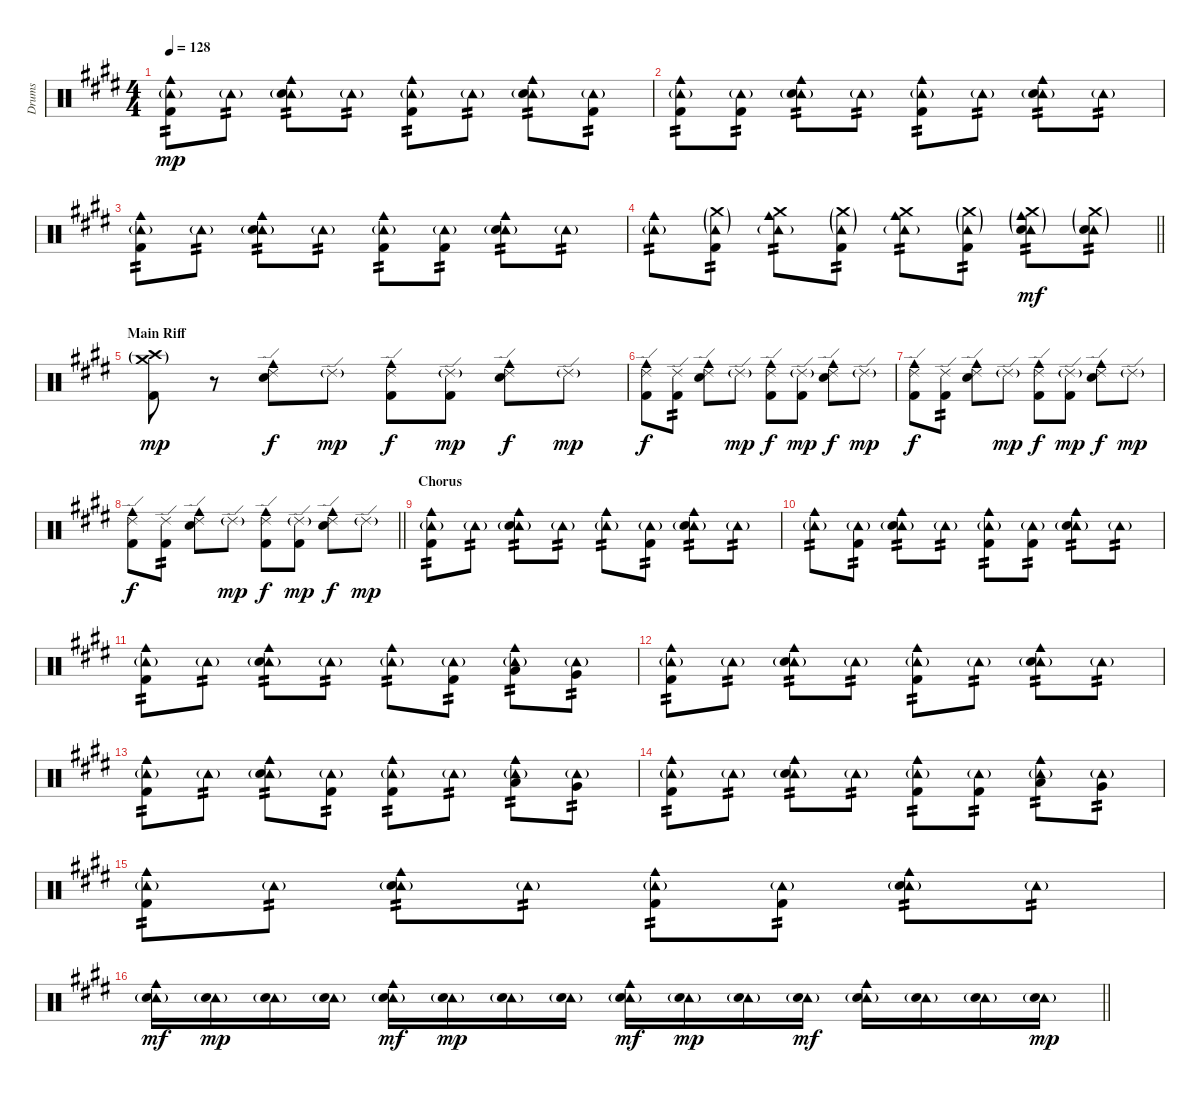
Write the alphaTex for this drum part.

\track ("Drums" "Drums") {instrument percussion}
\staff {score}
\articulation defaults
\ts (4 4)
\tempo 128
\clef neutral
\ks e
("Cowbell medium (hit)" "Tambourine (hit)"{g} "Kick (hit) 2").8{tp 2 dy mp} "Tambourine (hit)"{g}.8{tp 2} ("Cowbell medium (hit)" "Tambourine (hit)"{g} "Snare (hit) 2").8{tp 2} "Tambourine (hit)"{g}.8{tp 2} ("Cowbell medium (hit)" "Tambourine (hit)"{g} "Kick (hit) 2").8{tp 2} "Tambourine (hit)"{g}.8{tp 2} ("Cowbell medium (hit)" "Tambourine (hit)"{g} "Snare (hit) 2").8{tp 2} ("Tambourine (hit)"{g} "Kick (hit) 2").8{tp 2} |
\ks c#minor
("Cowbell medium (hit)" "Tambourine (hit)"{g} "Kick (hit) 2").8{tp 2} ("Tambourine (hit)"{g} "Kick (hit) 2").8{tp 2} ("Cowbell medium (hit)" "Tambourine (hit)"{g} "Snare (hit) 2").8{tp 2} "Tambourine (hit)"{g}.8{tp 2} ("Cowbell medium (hit)" "Tambourine (hit)"{g} "Kick (hit) 2").8{tp 2} "Tambourine (hit)"{g}.8{tp 2} ("Cowbell medium (hit)" "Tambourine (hit)"{g} "Snare (hit) 2").8{tp 2} "Tambourine (hit)"{g}.8{tp 2} |
("Cowbell medium (hit)" "Tambourine (hit)"{g} "Kick (hit) 2").8{tp 2} "Tambourine (hit)"{g}.8{tp 2} ("Cowbell medium (hit)" "Tambourine (hit)"{g} "Snare (hit) 2").8{tp 2} "Tambourine (hit)"{g}.8{tp 2} ("Cowbell medium (hit)" "Tambourine (hit)"{g} "Kick (hit) 2").8{tp 2} ("Tambourine (hit)"{g} "Kick (hit) 2").8{tp 2} ("Cowbell medium (hit)" "Tambourine (hit)"{g} "Snare (hit) 2").8{tp 2} "Tambourine (hit)"{g}.8{tp 2} |
\barLineRight lightlight
("Cowbell medium (hit)" "Tambourine (hit)"{g}).8{tp 2} ("Crash medium (hit)"{g} "Tambourine (hit)"{g} "Kick (hit) 2").8{tp 2} ("Cowbell medium (hit)" "Crash medium (hit)" "Tambourine (hit)"{g}).8{tp 2} ("Crash medium (hit)"{g} "Tambourine (hit)"{g} "Kick (hit) 2").8{tp 2} ("Cowbell medium (hit)" "Crash medium (hit)" "Tambourine (hit)"{g}).8{tp 2} ("Crash medium (hit)"{g} "Tambourine (hit)"{g} "Kick (hit) 2").8{tp 2} ("Cowbell medium (hit)"{g} "Crash medium (hit)"{g} "Tambourine (hit)"{g} "Snare (hit) 2").8{tp 2 dy mf} ("Crash medium (hit)"{g} "Tambourine (hit)"{g} "Snare (hit) 2").8{tp 2} |
\section ("" "Main Riff")
("Crash medium (hit)"{g} "Crash high (hit)"{g} "Kick (hit) 2").8{dy mp} r.8 ("Cowbell medium (hit)" "Ride (edge) 2" "Snare (hit) 2").8{dy f} "Ride (edge) 2"{g}.8{dy mp} ("Cowbell medium (hit)" "Ride (edge) 2" "Kick (hit) 2").8{dy f} ("Ride (edge) 2"{g} "Kick (hit) 2").8{dy mp} ("Cowbell medium (hit)" "Ride (edge) 2" "Snare (hit) 2").8{dy f} "Ride (edge) 2"{g}.8{dy mp} |
("Cowbell medium (hit)" "Ride (edge) 2" "Kick (hit) 2").8{dy f} ("Ride (edge) 2" "Kick (hit) 2").8{tp 2} ("Cowbell medium (hit)" "Ride (edge) 2" "Snare (hit) 2").8 "Ride (edge) 2"{g}.8{dy mp} ("Cowbell medium (hit)" "Ride (edge) 2" "Kick (hit) 2").8{dy f} ("Ride (edge) 2"{g} "Kick (hit) 2").8{dy mp} ("Cowbell medium (hit)" "Ride (edge) 2" "Snare (hit) 2").8{dy f} "Ride (edge) 2"{g}.8{dy mp} |
("Cowbell medium (hit)" "Ride (edge) 2" "Kick (hit) 2").8{dy f} ("Ride (edge) 2" "Kick (hit) 2").8{tp 2} ("Cowbell medium (hit)" "Ride (edge) 2" "Snare (hit) 2").8 "Ride (edge) 2"{g}.8{dy mp} ("Cowbell medium (hit)" "Ride (edge) 2" "Kick (hit) 2").8{dy f} ("Ride (edge) 2"{g} "Kick (hit) 2").8{dy mp} ("Cowbell medium (hit)" "Ride (edge) 2" "Snare (hit) 2").8{dy f} "Ride (edge) 2"{g}.8{dy mp} |
\barLineRight lightlight
("Cowbell medium (hit)" "Ride (edge) 2" "Kick (hit) 2").8{dy f} ("Ride (edge) 2" "Kick (hit) 2").8{tp 2} ("Cowbell medium (hit)" "Ride (edge) 2" "Snare (hit) 2").8 "Ride (edge) 2"{g}.8{dy mp} ("Cowbell medium (hit)" "Ride (edge) 2" "Kick (hit) 2").8{dy f} ("Ride (edge) 2"{g} "Kick (hit) 2").8{dy mp} ("Cowbell medium (hit)" "Ride (edge) 2" "Snare (hit) 2").8{dy f} "Ride (edge) 2"{g}.8{dy mp} |
\section ("" "Chorus")
("Cowbell medium (hit)" "Tambourine (hit)"{g} "Kick (hit) 2").8{tp 2} "Tambourine (hit)"{g}.8{tp 2} ("Cowbell medium (hit)" "Tambourine (hit)"{g} "Snare (hit) 2").8{tp 2} "Tambourine (hit)"{g}.8{tp 2} ("Cowbell medium (hit)" "Tambourine (hit)"{g}).8{tp 2} ("Tambourine (hit)"{g} "Kick (hit) 2").8{tp 2} ("Cowbell medium (hit)" "Tambourine (hit)"{g} "Snare (hit) 2").8{tp 2} "Tambourine (hit)"{g}.8{tp 2} |
\ks e
("Cowbell medium (hit)" "Tambourine (hit)"{g}).8{tp 2} ("Tambourine (hit)"{g} "Kick (hit) 2").8{tp 2} ("Cowbell medium (hit)" "Tambourine (hit)"{g} "Snare (hit) 2").8{tp 2} "Tambourine (hit)"{g}.8{tp 2} ("Cowbell medium (hit)" "Tambourine (hit)"{g} "Kick (hit) 2").8{tp 2} ("Tambourine (hit)"{g} "Kick (hit) 2").8{tp 2} ("Cowbell medium (hit)" "Tambourine (hit)"{g} "Snare (hit) 2").8{tp 2} "Tambourine (hit)"{g}.8{tp 2} |
\ks c#minor
("Cowbell medium (hit)" "Tambourine (hit)"{g} "Kick (hit) 2").8{tp 2} "Tambourine (hit)"{g}.8{tp 2} ("Cowbell medium (hit)" "Tambourine (hit)"{g} "Snare (hit) 2").8{tp 2} "Tambourine (hit)"{g}.8{tp 2} ("Cowbell medium (hit)" "Tambourine (hit)"{g}).8{tp 2} ("Tambourine (hit)"{g} "Kick (hit) 2").8{tp 2} ("Cowbell medium (hit)" "Tambourine (hit)"{g} "Low Tom (hit)").8{tp 2} ("Tambourine (hit)"{g} "Very Low Tom (hit)").8{tp 2} |
("Cowbell medium (hit)" "Tambourine (hit)"{g} "Kick (hit) 2").8{tp 2} "Tambourine (hit)"{g}.8{tp 2} ("Cowbell medium (hit)" "Tambourine (hit)"{g} "Snare (hit) 2").8{tp 2} "Tambourine (hit)"{g}.8{tp 2} ("Cowbell medium (hit)" "Tambourine (hit)"{g} "Kick (hit) 2").8{tp 2} "Tambourine (hit)"{g}.8{tp 2} ("Cowbell medium (hit)" "Tambourine (hit)"{g} "Snare (hit) 2").8{tp 2} "Tambourine (hit)"{g}.8{tp 2} |
("Cowbell medium (hit)" "Tambourine (hit)"{g} "Kick (hit) 2").8{tp 2} "Tambourine (hit)"{g}.8{tp 2} ("Cowbell medium (hit)" "Tambourine (hit)"{g} "Snare (hit) 2").8{tp 2} ("Tambourine (hit)"{g} "Kick (hit) 2").8{tp 2} ("Cowbell medium (hit)" "Tambourine (hit)"{g} "Kick (hit) 2").8{tp 2} "Tambourine (hit)"{g}.8{tp 2} ("Cowbell medium (hit)" "Tambourine (hit)"{g} "Low Tom (hit)").8{tp 2} ("Tambourine (hit)"{g} "Very Low Tom (hit)").8{tp 2} |
\ks e
("Cowbell medium (hit)" "Tambourine (hit)"{g} "Kick (hit) 2").8{tp 2} "Tambourine (hit)"{g}.8{tp 2} ("Cowbell medium (hit)" "Tambourine (hit)"{g} "Snare (hit) 2").8{tp 2} "Tambourine (hit)"{g}.8{tp 2} ("Cowbell medium (hit)" "Tambourine (hit)"{g} "Kick (hit) 2").8{tp 2} ("Tambourine (hit)"{g} "Kick (hit) 2").8{tp 2} ("Cowbell medium (hit)" "Tambourine (hit)"{g} "Low Tom (hit)").8{tp 2} ("Tambourine (hit)"{g} "Very Low Tom (hit)").8{tp 2} |
\ks c#minor
("Cowbell medium (hit)" "Tambourine (hit)"{g} "Kick (hit) 2").8{tp 2} "Tambourine (hit)"{g}.8{tp 2} ("Cowbell medium (hit)" "Tambourine (hit)"{g} "Snare (hit) 2").8{tp 2} "Tambourine (hit)"{g}.8{tp 2} ("Cowbell medium (hit)" "Tambourine (hit)"{g} "Kick (hit) 2").8{tp 2} ("Tambourine (hit)"{g} "Kick (hit) 2").8{tp 2} ("Cowbell medium (hit)" "Tambourine (hit)"{g} "Snare (hit) 2").8{tp 2} "Tambourine (hit)"{g}.8{tp 2} |
\barLineRight lightlight
("Cowbell medium (hit)" "Tambourine (hit)"{g} "Snare (hit) 2").16{dy mf} ("Tambourine (hit)"{g} "Snare (hit) 2"{g}).16{dy mp} ("Tambourine (hit)"{g} "Snare (hit) 2"{g}).16 ("Tambourine (hit)"{g} "Snare (hit) 2"{g}).16 ("Cowbell medium (hit)" "Tambourine (hit)"{g} "Snare (hit) 2").16{dy mf} ("Tambourine (hit)"{g} "Snare (hit) 2"{g}).16{dy mp} ("Tambourine (hit)"{g} "Snare (hit) 2"{g}).16 ("Tambourine (hit)"{g} "Snare (hit) 2"{g}).16 ("Cowbell medium (hit)" "Tambourine (hit)"{g} "Snare (hit) 2").16{dy mf} ("Tambourine (hit)"{g} "Snare (hit) 2"{g}).16{dy mp} ("Tambourine (hit)"{g} "Snare (hit) 2"{g}).16 ("Tambourine (hit)"{g} "Snare (hit) 2"{g}).16{dy mf} ("Cowbell medium (hit)" "Tambourine (hit)"{g} "Snare (hit) 2").16 ("Tambourine (hit)"{g} "Snare (hit) 2").16 ("Tambourine (hit)"{g} "Snare (hit) 2").16 ("Tambourine (hit)"{g} "Snare (hit) 2").16{dy mp}
